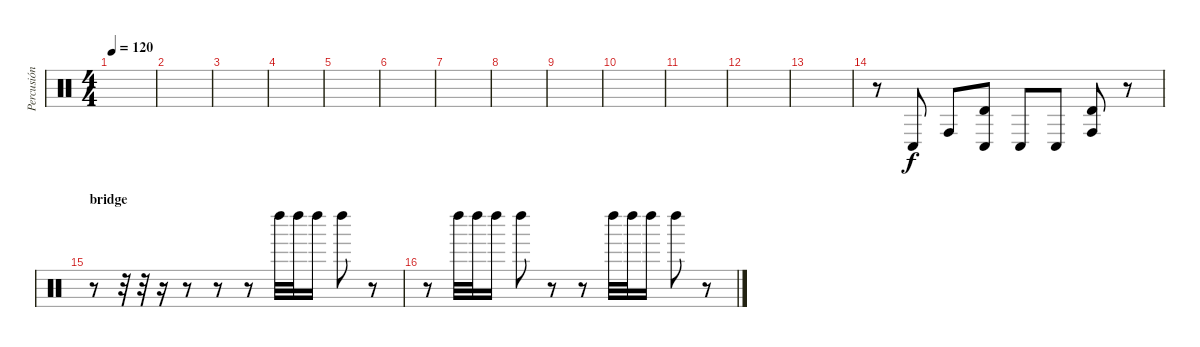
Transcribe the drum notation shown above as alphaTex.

\track ("Percusión" "Percusión") {instrument percussion}
\staff {score}
\articulation defaults
\ts (4 4)
\tempo 120
\clef neutral
\ks c
|
|
|
|
|
|
|
|
|
|
|
|
|
r.8 "Conga low (hit)".8 "Conga high (hit)".8 ("Timbale high (hit)" "Conga low (hit)").8 "Conga low (hit)".8 "Conga low (hit)".8 ("Timbale high (hit)" "Conga high (hit)").8 r.8 |
\section ("" "bridge")
r.8 r.32 r.32 r.16 r.8 r.8 r.8 "Left Maraca (hit)".32 "Left Maraca (hit)".32 "Left Maraca (hit)".16 "Left Maraca (hit)".8 r.8 |
r.8 "Left Maraca (hit)".32 "Left Maraca (hit)".32 "Left Maraca (hit)".16 "Left Maraca (hit)".8 r.8 r.8 "Left Maraca (hit)".32 "Left Maraca (hit)".32 "Left Maraca (hit)".16 "Left Maraca (hit)".8 r.8
